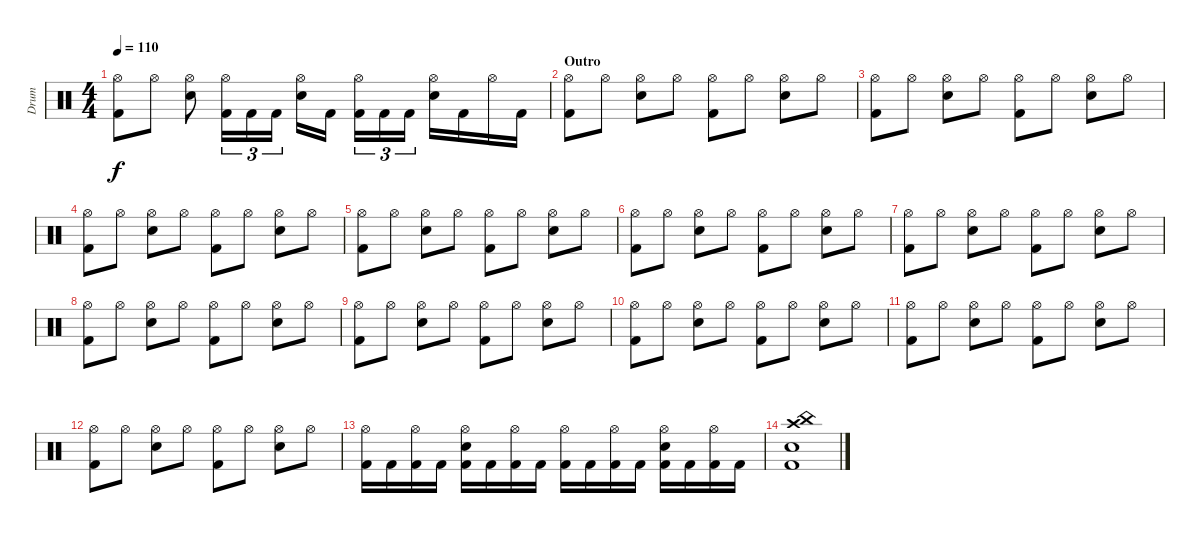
\track ("Drum" "Drum") {instrument percussion}
\staff {score}
\articulation defaults
\ts (4 4)
\tempo 110
\clef neutral
\ks c
("Hi-Hat (open)" "Kick (hit) 2").8{dy f} "Hi-Hat (open)".8 ("Hi-Hat (open)" "Electric Snare (hit)").8 ("Hi-Hat (open)" "Kick (hit) 2").16{tu (3 2)} "Kick (hit) 2".16{tu (3 2)} "Kick (hit) 2".16{tu (3 2)} ("Hi-Hat (open)" "Electric Snare (hit)").16 "Kick (hit) 2".16 ("Hi-Hat (open)" "Kick (hit) 2").16{tu (3 2)} "Kick (hit) 2".16{tu (3 2)} "Kick (hit) 2".16{tu (3 2)} ("Hi-Hat (open)" "Electric Snare (hit)").16 "Kick (hit) 2".16 "Hi-Hat (open)".16 "Kick (hit) 2".16 |
\section ("" "Outro")
("Hi-Hat (open)" "Kick (hit) 2").8 "Hi-Hat (open)".8 ("Hi-Hat (open)" "Electric Snare (hit)").8 "Hi-Hat (open)".8 ("Hi-Hat (open)" "Kick (hit) 2").8 "Hi-Hat (open)".8 ("Hi-Hat (open)" "Electric Snare (hit)").8 "Hi-Hat (open)".8 |
("Hi-Hat (open)" "Kick (hit) 2").8 "Hi-Hat (open)".8 ("Hi-Hat (open)" "Electric Snare (hit)").8 "Hi-Hat (open)".8 ("Hi-Hat (open)" "Kick (hit) 2").8 "Hi-Hat (open)".8 ("Hi-Hat (open)" "Electric Snare (hit)").8 "Hi-Hat (open)".8 |
("Hi-Hat (open)" "Kick (hit) 2").8 "Hi-Hat (open)".8 ("Hi-Hat (open)" "Electric Snare (hit)").8 "Hi-Hat (open)".8 ("Hi-Hat (open)" "Kick (hit) 2").8 "Hi-Hat (open)".8 ("Hi-Hat (open)" "Electric Snare (hit)").8 "Hi-Hat (open)".8 |
("Hi-Hat (open)" "Kick (hit) 2").8 "Hi-Hat (open)".8 ("Hi-Hat (open)" "Electric Snare (hit)").8 "Hi-Hat (open)".8 ("Hi-Hat (open)" "Kick (hit) 2").8 "Hi-Hat (open)".8 ("Hi-Hat (open)" "Electric Snare (hit)").8 "Hi-Hat (open)".8 |
("Hi-Hat (open)" "Kick (hit) 2").8 "Hi-Hat (open)".8 ("Hi-Hat (open)" "Electric Snare (hit)").8 "Hi-Hat (open)".8 ("Hi-Hat (open)" "Kick (hit) 2").8 "Hi-Hat (open)".8 ("Hi-Hat (open)" "Electric Snare (hit)").8 "Hi-Hat (open)".8 |
("Hi-Hat (open)" "Kick (hit) 2").8 "Hi-Hat (open)".8 ("Hi-Hat (open)" "Electric Snare (hit)").8 "Hi-Hat (open)".8 ("Hi-Hat (open)" "Kick (hit) 2").8 "Hi-Hat (open)".8 ("Hi-Hat (open)" "Electric Snare (hit)").8 "Hi-Hat (open)".8 |
("Hi-Hat (open)" "Kick (hit) 2").8 "Hi-Hat (open)".8 ("Hi-Hat (open)" "Electric Snare (hit)").8 "Hi-Hat (open)".8 ("Hi-Hat (open)" "Kick (hit) 2").8 "Hi-Hat (open)".8 ("Hi-Hat (open)" "Electric Snare (hit)").8 "Hi-Hat (open)".8 |
("Hi-Hat (open)" "Kick (hit) 2").8 "Hi-Hat (open)".8 ("Hi-Hat (open)" "Electric Snare (hit)").8 "Hi-Hat (open)".8 ("Hi-Hat (open)" "Kick (hit) 2").8 "Hi-Hat (open)".8 ("Hi-Hat (open)" "Electric Snare (hit)").8 "Hi-Hat (open)".8 |
("Hi-Hat (open)" "Kick (hit) 2").8 "Hi-Hat (open)".8 ("Hi-Hat (open)" "Electric Snare (hit)").8 "Hi-Hat (open)".8 ("Hi-Hat (open)" "Kick (hit) 2").8 "Hi-Hat (open)".8 ("Hi-Hat (open)" "Electric Snare (hit)").8 "Hi-Hat (open)".8 |
("Hi-Hat (open)" "Kick (hit) 2").8 "Hi-Hat (open)".8 ("Hi-Hat (open)" "Electric Snare (hit)").8 "Hi-Hat (open)".8 ("Hi-Hat (open)" "Kick (hit) 2").8 "Hi-Hat (open)".8 ("Hi-Hat (open)" "Electric Snare (hit)").8 "Hi-Hat (open)".8 |
("Hi-Hat (open)" "Kick (hit) 2").8 "Hi-Hat (open)".8 ("Hi-Hat (open)" "Electric Snare (hit)").8 "Hi-Hat (open)".8 ("Hi-Hat (open)" "Kick (hit) 2").8 "Hi-Hat (open)".8 ("Hi-Hat (open)" "Electric Snare (hit)").8 "Hi-Hat (open)".8 |
("Hi-Hat (open)" "Kick (hit) 2").16 "Kick (hit) 2".16 ("Hi-Hat (open)" "Kick (hit) 2").16 "Kick (hit) 2".16 ("Hi-Hat (open)" "Electric Snare (hit)" "Kick (hit) 2").16 "Kick (hit) 2".16 ("Hi-Hat (open)" "Kick (hit) 2").16 "Kick (hit) 2".16 ("Hi-Hat (open)" "Kick (hit) 2").16 "Kick (hit) 2".16 ("Hi-Hat (open)" "Kick (hit) 2").16 "Kick (hit) 2".16 ("Hi-Hat (open)" "Electric Snare (hit)" "Kick (hit) 2").16 "Kick (hit) 2".16 ("Hi-Hat (open)" "Kick (hit) 2").16 "Kick (hit) 2".16 |
("China (hit)" "Crash high (hit)" "Snare (hit)" "Kick (hit) 2").1
